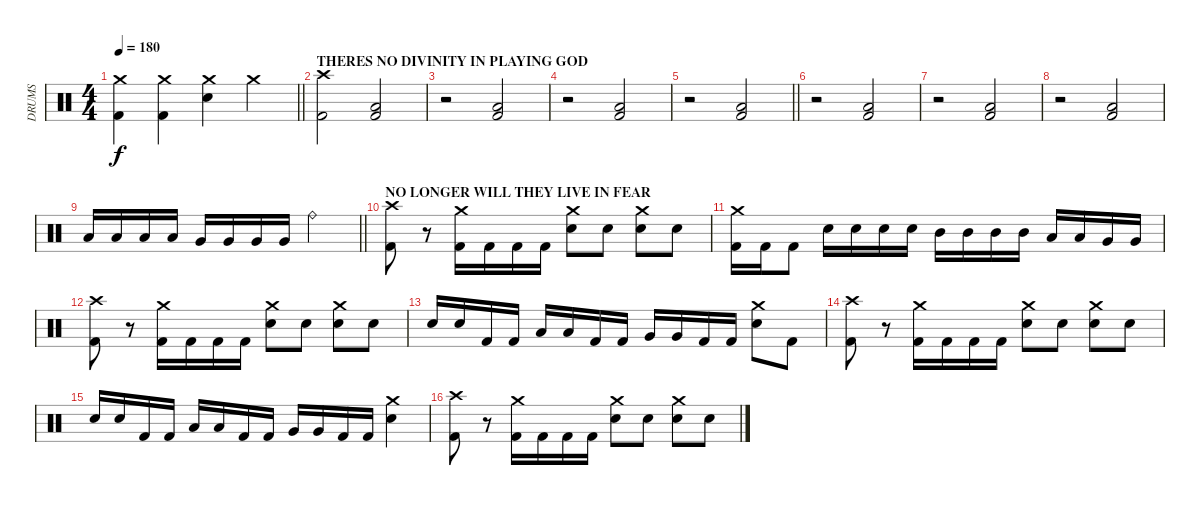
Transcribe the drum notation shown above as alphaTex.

\track ("DRUMS" "DRUMS") {instrument percussion}
\staff {score}
\articulation defaults
\ts (4 4)
\tempo 180
\clef neutral
\barLineRight lightlight
\ks c
("Crash medium (hit)" "Kick (hit) 2").4{dy f} ("Crash medium (hit)" "Kick (hit) 2").4 ("Crash medium (hit)" "Electric Snare (hit)").4 "Crash medium (hit)".4 |
\section ("" "THERES NO DIVINITY IN PLAYING GOD")
("Crash high (hit)" "Kick (hit) 2").2 ("Low Floor Tom (hit)" "Kick (hit) 2").2 |
r.2 ("Low Floor Tom (hit)" "Kick (hit) 2").2 |
r.2 ("Low Floor Tom (hit)" "Kick (hit) 2").2 |
\barLineRight lightlight
r.2 ("Low Floor Tom (hit)" "Kick (hit) 2").2 |
r.2 ("Low Floor Tom (hit)" "Kick (hit) 2").2 |
r.2 ("Low Floor Tom (hit)" "Kick (hit) 2").2 |
r.2 ("Low Floor Tom (hit)" "Kick (hit) 2").2 |
\barLineRight lightlight "Low Tom (hit)".16 "Low Tom (hit)".16 "Low Tom (hit)".16 "Low Tom (hit)".16 "Very Low Tom (hit)".16 "Very Low Tom (hit)".16 "Very Low Tom (hit)".16 "Very Low Tom (hit)".16 "Ride (bell)".2
|
\section ("" "NO LONGER WILL THEY LIVE IN FEAR")
("Crash high (hit)" "Kick (hit) 2").8 r.8 ("Crash medium (hit)" "Kick (hit) 2").16 "Kick (hit) 2".16 "Kick (hit) 2".16 "Kick (hit) 2".16 ("Crash medium (hit)" "Electric Snare (hit)").8 "Electric Snare (hit)".8 ("Crash medium (hit)" "Electric Snare (hit)").8 "Electric Snare (hit)".8 |
("Crash medium (hit)" "Kick (hit) 2").16 "Kick (hit) 2".16 "Kick (hit) 2".8 "Electric Snare (hit)".16 "Electric Snare (hit)".16 "Electric Snare (hit)".16 "Electric Snare (hit)".16 "Mid Tom (hit)".16 "Mid Tom (hit)".16 "Mid Tom (hit)".16 "Mid Tom (hit)".16 "Low Tom (hit)".16 "Low Tom (hit)".16 "Very Low Tom (hit)".16 "Very Low Tom (hit)".16 |
("Crash high (hit)" "Kick (hit) 2").8 r.8 ("Crash medium (hit)" "Kick (hit) 2").16 "Kick (hit) 2".16 "Kick (hit) 2".16 "Kick (hit) 2".16 ("Crash medium (hit)" "Electric Snare (hit)").8 "Electric Snare (hit)".8 ("Crash medium (hit)" "Electric Snare (hit)").8 "Electric Snare (hit)".8 |
"Electric Snare (hit)".16 "Electric Snare (hit)".16 "Kick (hit) 2".16 "Kick (hit) 2".16 "Low Tom (hit)".16 "Low Tom (hit)".16 "Kick (hit) 2".16 "Kick (hit) 2".16 "Very Low Tom (hit)".16 "Very Low Tom (hit)".16 "Kick (hit) 2".16 "Kick (hit) 2".16 ("Crash medium (hit)" "Electric Snare (hit)").8 "Kick (hit) 2".8 |
("Crash high (hit)" "Kick (hit) 2").8 r.8 ("Crash medium (hit)" "Kick (hit) 2").16 "Kick (hit) 2".16 "Kick (hit) 2".16 "Kick (hit) 2".16 ("Crash medium (hit)" "Electric Snare (hit)").8 "Electric Snare (hit)".8 ("Crash medium (hit)" "Electric Snare (hit)").8 "Electric Snare (hit)".8 |
"Electric Snare (hit)".16 "Electric Snare (hit)".16 "Kick (hit) 2".16 "Kick (hit) 2".16 "Low Tom (hit)".16 "Low Tom (hit)".16 "Kick (hit) 2".16 "Kick (hit) 2".16 "Very Low Tom (hit)".16 "Very Low Tom (hit)".16 "Kick (hit) 2".16 "Kick (hit) 2".16 ("Crash medium (hit)" "Electric Snare (hit)").4 |
("Crash high (hit)" "Kick (hit) 2").8 r.8 ("Crash medium (hit)" "Kick (hit) 2").16 "Kick (hit) 2".16 "Kick (hit) 2".16 "Kick (hit) 2".16 ("Crash medium (hit)" "Electric Snare (hit)").8 "Electric Snare (hit)".8 ("Crash medium (hit)" "Electric Snare (hit)").8 "Electric Snare (hit)".8
